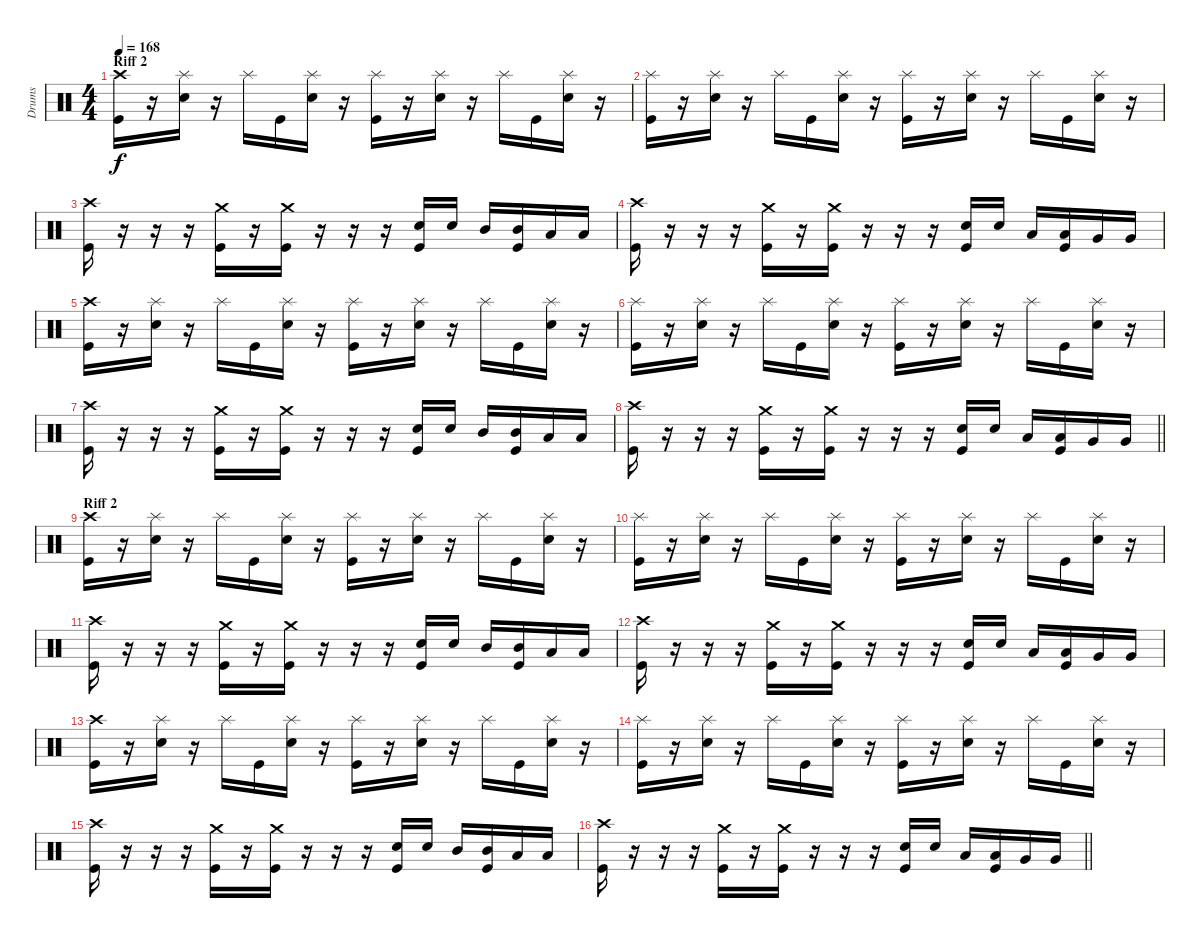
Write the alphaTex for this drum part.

\track ("Drums" "Drums") {instrument percussion}
\staff {score}
\articulation defaults
\ts (4 4)
\section ("" "Riff 2")
\tempo 168
\clef neutral
\ks c
("Crash high (hit)" "Kick (hit)").16{dy f} r.16 ("Splash (hit)" "Electric Snare (hit)").16 r.16 "Splash (hit)".16 "Kick (hit)".16 ("Splash (hit)" "Electric Snare (hit)").16 r.16 ("Splash (hit)" "Kick (hit)").16 r.16 ("Splash (hit)" "Electric Snare (hit)").16 r.16 "Splash (hit)".16 "Kick (hit)".16 ("Splash (hit)" "Electric Snare (hit)").16 r.16 |
("Splash (hit)" "Kick (hit)").16 r.16 ("Splash (hit)" "Electric Snare (hit)").16 r.16 "Splash (hit)".16 "Kick (hit)".16 ("Splash (hit)" "Electric Snare (hit)").16 r.16 ("Splash (hit)" "Kick (hit)").16 r.16 ("Splash (hit)" "Electric Snare (hit)").16 r.16 "Splash (hit)".16 "Kick (hit)".16 ("Splash (hit)" "Electric Snare (hit)").16 r.16 |
("Crash high (hit)" "Kick (hit)").16 r.16 r.16 r.16 ("Crash medium (hit)" "Kick (hit)").16 r.16 ("Crash medium (hit)" "Kick (hit)").16 r.16 r.16 r.16 ("Electric Snare (hit)" "Kick (hit)").16 "Electric Snare (hit)".16 "Mid Tom (hit)".16 ("Mid Tom (hit)" "Kick (hit)").16 "Low Tom (hit)".16 "Low Tom (hit)".16 |
("Crash high (hit)" "Kick (hit)").16 r.16 r.16 r.16 ("Crash medium (hit)" "Kick (hit)").16 r.16 ("Crash medium (hit)" "Kick (hit)").16 r.16 r.16 r.16 ("Electric Snare (hit)" "Kick (hit)").16 "Electric Snare (hit)".16 "Low Tom (hit)".16 ("Low Tom (hit)" "Kick (hit)").16 "Very Low Tom (hit)".16 "Very Low Tom (hit)".16 |
("Crash high (hit)" "Kick (hit)").16 r.16 ("Splash (hit)" "Electric Snare (hit)").16 r.16 "Splash (hit)".16 "Kick (hit)".16 ("Splash (hit)" "Electric Snare (hit)").16 r.16 ("Splash (hit)" "Kick (hit)").16 r.16 ("Splash (hit)" "Electric Snare (hit)").16 r.16 "Splash (hit)".16 "Kick (hit)".16 ("Splash (hit)" "Electric Snare (hit)").16 r.16 |
("Splash (hit)" "Kick (hit)").16 r.16 ("Splash (hit)" "Electric Snare (hit)").16 r.16 "Splash (hit)".16 "Kick (hit)".16 ("Splash (hit)" "Electric Snare (hit)").16 r.16 ("Splash (hit)" "Kick (hit)").16 r.16 ("Splash (hit)" "Electric Snare (hit)").16 r.16 "Splash (hit)".16 "Kick (hit)".16 ("Splash (hit)" "Electric Snare (hit)").16 r.16 |
("Crash high (hit)" "Kick (hit)").16 r.16 r.16 r.16 ("Crash medium (hit)" "Kick (hit)").16 r.16 ("Crash medium (hit)" "Kick (hit)").16 r.16 r.16 r.16 ("Electric Snare (hit)" "Kick (hit)").16 "Electric Snare (hit)".16 "Mid Tom (hit)".16 ("Mid Tom (hit)" "Kick (hit)").16 "Low Tom (hit)".16 "Low Tom (hit)".16 |
\barLineRight lightlight
("Crash high (hit)" "Kick (hit)").16 r.16 r.16 r.16 ("Crash medium (hit)" "Kick (hit)").16 r.16 ("Crash medium (hit)" "Kick (hit)").16 r.16 r.16 r.16 ("Electric Snare (hit)" "Kick (hit)").16 "Electric Snare (hit)".16 "Low Tom (hit)".16 ("Low Tom (hit)" "Kick (hit)").16 "Very Low Tom (hit)".16 "Very Low Tom (hit)".16 |
\section ("" "Riff 2")
("Crash high (hit)" "Kick (hit)").16 r.16 ("Splash (hit)" "Electric Snare (hit)").16 r.16 "Splash (hit)".16 "Kick (hit)".16 ("Splash (hit)" "Electric Snare (hit)").16 r.16 ("Splash (hit)" "Kick (hit)").16 r.16 ("Splash (hit)" "Electric Snare (hit)").16 r.16 "Splash (hit)".16 "Kick (hit)".16 ("Splash (hit)" "Electric Snare (hit)").16 r.16 |
("Splash (hit)" "Kick (hit)").16 r.16 ("Splash (hit)" "Electric Snare (hit)").16 r.16 "Splash (hit)".16 "Kick (hit)".16 ("Splash (hit)" "Electric Snare (hit)").16 r.16 ("Splash (hit)" "Kick (hit)").16 r.16 ("Splash (hit)" "Electric Snare (hit)").16 r.16 "Splash (hit)".16 "Kick (hit)".16 ("Splash (hit)" "Electric Snare (hit)").16 r.16 |
("Crash high (hit)" "Kick (hit)").16 r.16 r.16 r.16 ("Crash medium (hit)" "Kick (hit)").16 r.16 ("Crash medium (hit)" "Kick (hit)").16 r.16 r.16 r.16 ("Electric Snare (hit)" "Kick (hit)").16 "Electric Snare (hit)".16 "Mid Tom (hit)".16 ("Mid Tom (hit)" "Kick (hit)").16 "Low Tom (hit)".16 "Low Tom (hit)".16 |
("Crash high (hit)" "Kick (hit)").16 r.16 r.16 r.16 ("Crash medium (hit)" "Kick (hit)").16 r.16 ("Crash medium (hit)" "Kick (hit)").16 r.16 r.16 r.16 ("Electric Snare (hit)" "Kick (hit)").16 "Electric Snare (hit)".16 "Low Tom (hit)".16 ("Low Tom (hit)" "Kick (hit)").16 "Very Low Tom (hit)".16 "Very Low Tom (hit)".16 |
("Crash high (hit)" "Kick (hit)").16 r.16 ("Splash (hit)" "Electric Snare (hit)").16 r.16 "Splash (hit)".16 "Kick (hit)".16 ("Splash (hit)" "Electric Snare (hit)").16 r.16 ("Splash (hit)" "Kick (hit)").16 r.16 ("Splash (hit)" "Electric Snare (hit)").16 r.16 "Splash (hit)".16 "Kick (hit)".16 ("Splash (hit)" "Electric Snare (hit)").16 r.16 |
("Splash (hit)" "Kick (hit)").16 r.16 ("Splash (hit)" "Electric Snare (hit)").16 r.16 "Splash (hit)".16 "Kick (hit)".16 ("Splash (hit)" "Electric Snare (hit)").16 r.16 ("Splash (hit)" "Kick (hit)").16 r.16 ("Splash (hit)" "Electric Snare (hit)").16 r.16 "Splash (hit)".16 "Kick (hit)".16 ("Splash (hit)" "Electric Snare (hit)").16 r.16 |
("Crash high (hit)" "Kick (hit)").16 r.16 r.16 r.16 ("Crash medium (hit)" "Kick (hit)").16 r.16 ("Crash medium (hit)" "Kick (hit)").16 r.16 r.16 r.16 ("Electric Snare (hit)" "Kick (hit)").16 "Electric Snare (hit)".16 "Mid Tom (hit)".16 ("Mid Tom (hit)" "Kick (hit)").16 "Low Tom (hit)".16 "Low Tom (hit)".16 |
\barLineRight lightlight
("Crash high (hit)" "Kick (hit)").16 r.16 r.16 r.16 ("Crash medium (hit)" "Kick (hit)").16 r.16 ("Crash medium (hit)" "Kick (hit)").16 r.16 r.16 r.16 ("Electric Snare (hit)" "Kick (hit)").16 "Electric Snare (hit)".16 "Low Tom (hit)".16 ("Low Tom (hit)" "Kick (hit)").16 "Very Low Tom (hit)".16 "Very Low Tom (hit)".16
